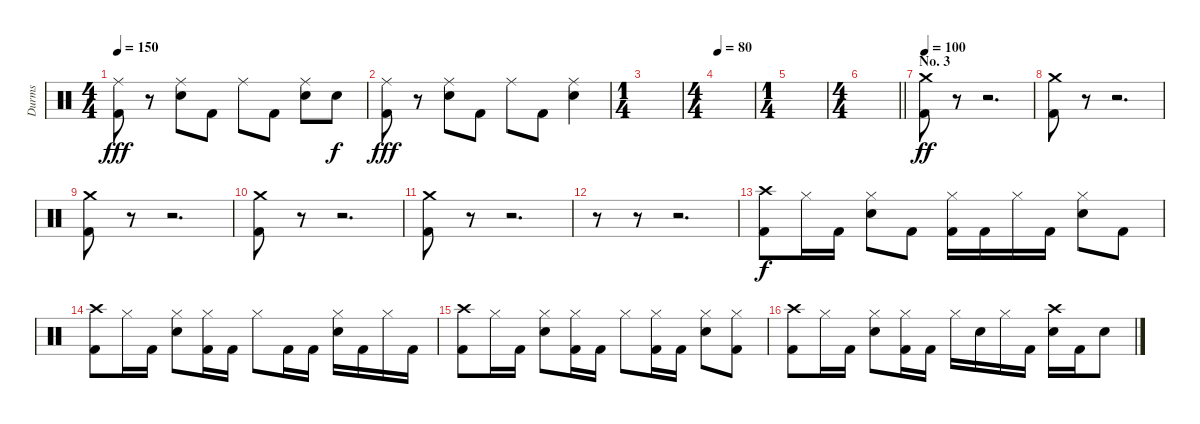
\track ("Durms" "Durms") {instrument percussion}
\staff {score}
\articulation defaults
\ts (4 4)
\tempo 150
\clef neutral
\ks c
("Ride (middle)" "Kick (hit) 2").8{dy fff} r.8 ("Ride (middle)" "Electric Snare (hit)").8 "Kick (hit) 2".8 "Ride (middle)".8 "Kick (hit) 2".8 ("Ride (middle)" "Electric Snare (hit)").8 "Electric Snare (hit)".8{dy f} |
("Ride (middle)" "Kick (hit) 2").8{dy fff} r.8 ("Ride (middle)" "Electric Snare (hit)").8 "Kick (hit) 2".8 "Ride (middle)".8 "Kick (hit) 2".8 ("Ride (middle)" "Electric Snare (hit)").4 |
\ts (1 4)
|
\ts (4 4)
\tempo 80
|
\ts (1 4)
|
\ts (4 4)
\barLineRight lightlight
|
\section ("" "No. 3")
\tempo 100
("Crash medium (hit)" "Kick (hit) 2").8{dy ff} r.8 r.2{d} |
("Crash medium (hit)" "Kick (hit) 2").8 r.8 r.2{d} |
("Crash medium (hit)" "Kick (hit) 2").8 r.8 r.2{d} |
("Crash medium (hit)" "Kick (hit) 2").8 r.8 r.2{d} |
("Crash medium (hit)" "Kick (hit) 2").8 r.8 r.2{d} |
r.8 r.8 r.2{d} |
("Crash high (hit)" "Kick (hit) 2").8{dy f} "Hi-Hat (closed)".16 "Kick (hit) 2".16 ("Hi-Hat (closed)" "Electric Snare (hit)").8 "Kick (hit) 2".8 ("Hi-Hat (closed)" "Kick (hit) 2").16 "Kick (hit) 2".16 "Hi-Hat (closed)".16 "Kick (hit) 2".16 ("Hi-Hat (closed)" "Electric Snare (hit)").8 "Kick (hit) 2".8 |
("Crash high (hit)" "Kick (hit) 2").8 "Hi-Hat (closed)".16 "Kick (hit) 2".16 ("Hi-Hat (closed)" "Electric Snare (hit)").8 ("Hi-Hat (closed)" "Kick (hit) 2").16 "Kick (hit) 2".16 "Hi-Hat (closed)".8 "Kick (hit) 2".16 "Kick (hit) 2".16 ("Hi-Hat (closed)" "Electric Snare (hit)").16 "Kick (hit) 2".16 "Hi-Hat (closed)".16 "Kick (hit) 2".16 |
("Crash high (hit)" "Kick (hit) 2").8 "Hi-Hat (closed)".16 "Kick (hit) 2".16 ("Hi-Hat (closed)" "Electric Snare (hit)").8 ("Hi-Hat (closed)" "Kick (hit) 2").16 "Kick (hit) 2".16 "Hi-Hat (closed)".8 ("Hi-Hat (closed)" "Kick (hit) 2").16 "Kick (hit) 2".16 ("Hi-Hat (closed)" "Electric Snare (hit)").8 ("Hi-Hat (closed)" "Kick (hit) 2").8 |
("Crash high (hit)" "Kick (hit) 2").8 "Hi-Hat (closed)".16 "Kick (hit) 2".16 ("Hi-Hat (closed)" "Electric Snare (hit)").8 ("Hi-Hat (closed)" "Kick (hit) 2").16 "Kick (hit) 2".16 "Hi-Hat (closed)".16 "Electric Snare (hit)".16 "Hi-Hat (closed)".16 "Kick (hit) 2".16 ("Crash high (hit)" "Electric Snare (hit)").16 "Kick (hit) 2".16 "Electric Snare (hit)".8
